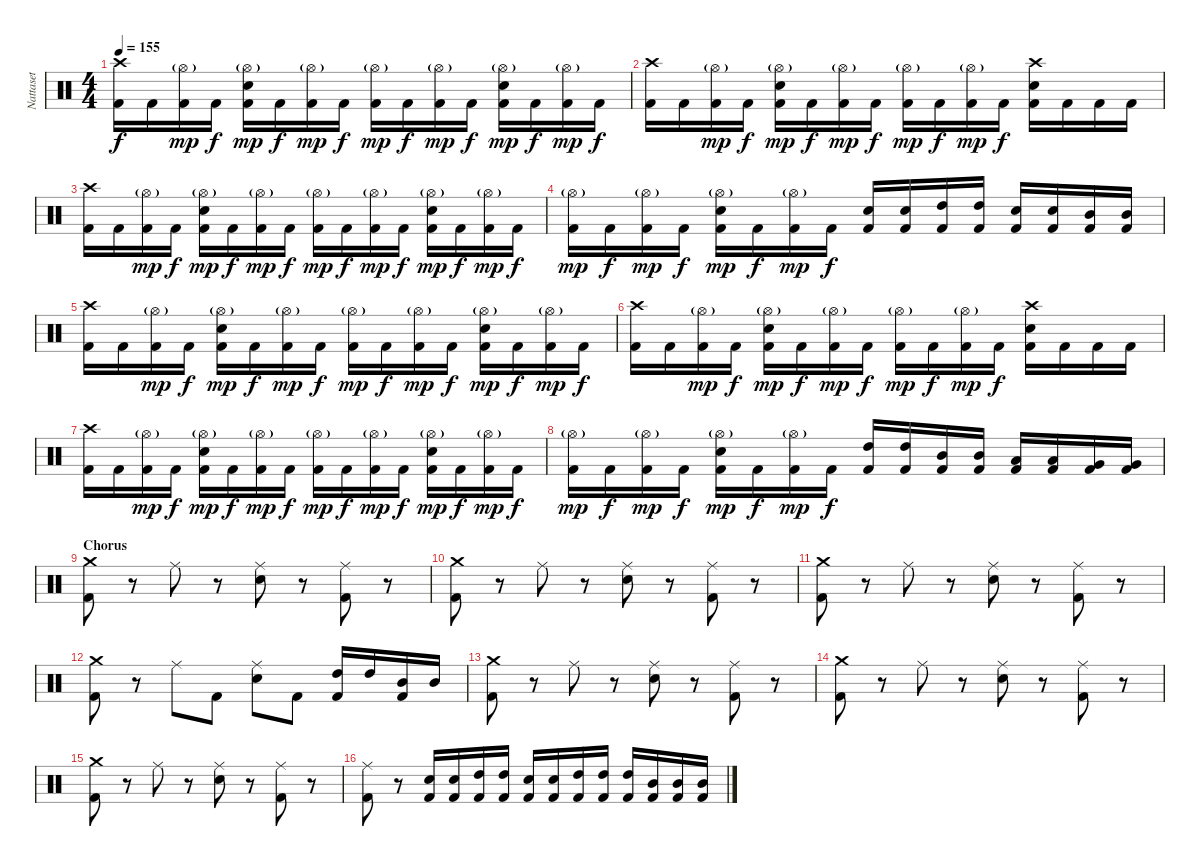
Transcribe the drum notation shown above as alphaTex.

\track ("Nattaset" "Nattaset") {instrument percussion}
\staff {score}
\articulation defaults
\ts (4 4)
\tempo 155
\clef neutral
\ks c
("Crash high (hit)" "Kick (hit) 2").16{dy f} "Kick (hit) 2".16 ("Hi-Hat (open)"{g} "Kick (hit) 2").16{dy mp} "Kick (hit) 2".16{dy f} ("Hi-Hat (open)"{g} "Electric Snare (hit)" "Kick (hit) 2").16{dy mp} "Kick (hit) 2".16{dy f} ("Hi-Hat (open)"{g} "Kick (hit) 2").16{dy mp} "Kick (hit) 2".16{dy f} ("Hi-Hat (open)"{g} "Kick (hit) 2").16{dy mp} "Kick (hit) 2".16{dy f} ("Hi-Hat (open)"{g} "Kick (hit) 2").16{dy mp} "Kick (hit) 2".16{dy f} ("Hi-Hat (open)"{g} "Electric Snare (hit)" "Kick (hit) 2").16{dy mp} "Kick (hit) 2".16{dy f} ("Hi-Hat (open)"{g} "Kick (hit) 2").16{dy mp} "Kick (hit) 2".16{dy f} |
("Crash high (hit)" "Kick (hit) 2").16 "Kick (hit) 2".16 ("Hi-Hat (open)"{g} "Kick (hit) 2").16{dy mp} "Kick (hit) 2".16{dy f} ("Hi-Hat (open)"{g} "Electric Snare (hit)" "Kick (hit) 2").16{dy mp} "Kick (hit) 2".16{dy f} ("Hi-Hat (open)"{g} "Kick (hit) 2").16{dy mp} "Kick (hit) 2".16{dy f} ("Hi-Hat (open)"{g} "Kick (hit) 2").16{dy mp} "Kick (hit) 2".16{dy f} ("Hi-Hat (open)"{g} "Kick (hit) 2").16{dy mp} "Kick (hit) 2".16{dy f} ("Crash high (hit)" "Electric Snare (hit)" "Kick (hit) 2").16 "Kick (hit) 2".16 "Kick (hit) 2".16 "Kick (hit) 2".16 |
("Crash high (hit)" "Kick (hit) 2").16 "Kick (hit) 2".16 ("Hi-Hat (open)"{g} "Kick (hit) 2").16{dy mp} "Kick (hit) 2".16{dy f} ("Hi-Hat (open)"{g} "Electric Snare (hit)" "Kick (hit) 2").16{dy mp} "Kick (hit) 2".16{dy f} ("Hi-Hat (open)"{g} "Kick (hit) 2").16{dy mp} "Kick (hit) 2".16{dy f} ("Hi-Hat (open)"{g} "Kick (hit) 2").16{dy mp} "Kick (hit) 2".16{dy f} ("Hi-Hat (open)"{g} "Kick (hit) 2").16{dy mp} "Kick (hit) 2".16{dy f} ("Hi-Hat (open)"{g} "Electric Snare (hit)" "Kick (hit) 2").16{dy mp} "Kick (hit) 2".16{dy f} ("Hi-Hat (open)"{g} "Kick (hit) 2").16{dy mp} "Kick (hit) 2".16{dy f} |
("Hi-Hat (open)"{g} "Kick (hit) 2").16{dy mp} "Kick (hit) 2".16{dy f} ("Hi-Hat (open)"{g} "Kick (hit) 2").16{dy mp} "Kick (hit) 2".16{dy f} ("Hi-Hat (open)"{g} "Electric Snare (hit)" "Kick (hit) 2").16{dy mp} "Kick (hit) 2".16{dy f} ("Hi-Hat (open)"{g} "Kick (hit) 2").16{dy mp} "Kick (hit) 2".16{dy f} ("Electric Snare (hit)" "Kick (hit) 2").16 ("Electric Snare (hit)" "Kick (hit) 2").16 ("High Tom (hit)" "Kick (hit) 2").16 ("High Tom (hit)" "Kick (hit) 2").16 ("Electric Snare (hit)" "Kick (hit) 2").16 ("Electric Snare (hit)" "Kick (hit) 2").16 ("Mid Tom (hit)" "Kick (hit) 2").16 ("Mid Tom (hit)" "Kick (hit) 2").16 |
("Crash high (hit)" "Kick (hit) 2").16 "Kick (hit) 2".16 ("Hi-Hat (open)"{g} "Kick (hit) 2").16{dy mp} "Kick (hit) 2".16{dy f} ("Hi-Hat (open)"{g} "Electric Snare (hit)" "Kick (hit) 2").16{dy mp} "Kick (hit) 2".16{dy f} ("Hi-Hat (open)"{g} "Kick (hit) 2").16{dy mp} "Kick (hit) 2".16{dy f} ("Hi-Hat (open)"{g} "Kick (hit) 2").16{dy mp} "Kick (hit) 2".16{dy f} ("Hi-Hat (open)"{g} "Kick (hit) 2").16{dy mp} "Kick (hit) 2".16{dy f} ("Hi-Hat (open)"{g} "Electric Snare (hit)" "Kick (hit) 2").16{dy mp} "Kick (hit) 2".16{dy f} ("Hi-Hat (open)"{g} "Kick (hit) 2").16{dy mp} "Kick (hit) 2".16{dy f} |
("Crash high (hit)" "Kick (hit) 2").16 "Kick (hit) 2".16 ("Hi-Hat (open)"{g} "Kick (hit) 2").16{dy mp} "Kick (hit) 2".16{dy f} ("Hi-Hat (open)"{g} "Electric Snare (hit)" "Kick (hit) 2").16{dy mp} "Kick (hit) 2".16{dy f} ("Hi-Hat (open)"{g} "Kick (hit) 2").16{dy mp} "Kick (hit) 2".16{dy f} ("Hi-Hat (open)"{g} "Kick (hit) 2").16{dy mp} "Kick (hit) 2".16{dy f} ("Hi-Hat (open)"{g} "Kick (hit) 2").16{dy mp} "Kick (hit) 2".16{dy f} ("Crash high (hit)" "Electric Snare (hit)" "Kick (hit) 2").16 "Kick (hit) 2".16 "Kick (hit) 2".16 "Kick (hit) 2".16 |
("Crash high (hit)" "Kick (hit) 2").16 "Kick (hit) 2".16 ("Hi-Hat (open)"{g} "Kick (hit) 2").16{dy mp} "Kick (hit) 2".16{dy f} ("Hi-Hat (open)"{g} "Electric Snare (hit)" "Kick (hit) 2").16{dy mp} "Kick (hit) 2".16{dy f} ("Hi-Hat (open)"{g} "Kick (hit) 2").16{dy mp} "Kick (hit) 2".16{dy f} ("Hi-Hat (open)"{g} "Kick (hit) 2").16{dy mp} "Kick (hit) 2".16{dy f} ("Hi-Hat (open)"{g} "Kick (hit) 2").16{dy mp} "Kick (hit) 2".16{dy f} ("Hi-Hat (open)"{g} "Electric Snare (hit)" "Kick (hit) 2").16{dy mp} "Kick (hit) 2".16{dy f} ("Hi-Hat (open)"{g} "Kick (hit) 2").16{dy mp} "Kick (hit) 2".16{dy f} |
("Hi-Hat (open)"{g} "Kick (hit) 2").16{dy mp} "Kick (hit) 2".16{dy f} ("Hi-Hat (open)"{g} "Kick (hit) 2").16{dy mp} "Kick (hit) 2".16{dy f} ("Hi-Hat (open)"{g} "Electric Snare (hit)" "Kick (hit) 2").16{dy mp} "Kick (hit) 2".16{dy f} ("Hi-Hat (open)"{g} "Kick (hit) 2").16{dy mp} "Kick (hit) 2".16{dy f} ("High Tom (hit)" "Kick (hit) 2").16 ("High Tom (hit)" "Kick (hit) 2").16 ("Mid Tom (hit)" "Kick (hit) 2").16 ("Mid Tom (hit)" "Kick (hit) 2").16 ("Low Tom (hit)" "Kick (hit) 2").16 ("Low Tom (hit)" "Kick (hit) 2").16 ("Very Low Tom (hit)" "Kick (hit) 2").16 ("Very Low Tom (hit)" "Kick (hit) 2").16 |
\section ("" "Chorus")
("Crash medium (hit)" "Kick (hit) 2").8 r.8 "Ride (middle)".8 r.8 ("Ride (middle)" "Electric Snare (hit)").8 r.8 ("Ride (middle)" "Kick (hit) 2").8 r.8 |
("Crash medium (hit)" "Kick (hit) 2").8 r.8 "Ride (middle)".8 r.8 ("Ride (middle)" "Electric Snare (hit)").8 r.8 ("Ride (middle)" "Kick (hit) 2").8 r.8 |
("Crash medium (hit)" "Kick (hit) 2").8 r.8 "Ride (middle)".8 r.8 ("Ride (middle)" "Electric Snare (hit)").8 r.8 ("Ride (middle)" "Kick (hit) 2").8 r.8 |
("Crash medium (hit)" "Kick (hit) 2").8 r.8 "Ride (middle)".8 "Kick (hit) 2".8 ("Ride (middle)" "Electric Snare (hit)").8 "Kick (hit) 2".8 ("High Tom (hit)" "Kick (hit) 2").16 "High Tom (hit)".16 ("Mid Tom (hit)" "Kick (hit) 2").16 "Mid Tom (hit)".16 |
("Crash medium (hit)" "Kick (hit) 2").8 r.8 "Ride (middle)".8 r.8 ("Ride (middle)" "Electric Snare (hit)").8 r.8 ("Ride (middle)" "Kick (hit) 2").8 r.8 |
("Crash medium (hit)" "Kick (hit) 2").8 r.8 "Ride (middle)".8 r.8 ("Ride (middle)" "Electric Snare (hit)").8 r.8 ("Ride (middle)" "Kick (hit) 2").8 r.8 |
("Crash medium (hit)" "Kick (hit) 2").8 r.8 "Ride (middle)".8 r.8 ("Ride (middle)" "Electric Snare (hit)").8 r.8 ("Ride (middle)" "Kick (hit) 2").8 r.8 |
("Ride (middle)" "Kick (hit) 2").8 r.8 ("Electric Snare (hit)" "Kick (hit) 2").16 ("Electric Snare (hit)" "Kick (hit) 2").16 ("High Tom (hit)" "Kick (hit) 2").16 ("High Tom (hit)" "Kick (hit) 2").16 ("Electric Snare (hit)" "Kick (hit) 2").16 ("Electric Snare (hit)" "Kick (hit) 2").16 ("High Tom (hit)" "Kick (hit) 2").16 ("High Tom (hit)" "Kick (hit) 2").16 ("High Tom (hit)" "Kick (hit) 2").16 ("Mid Tom (hit)" "Kick (hit) 2").16 ("Mid Tom (hit)" "Kick (hit) 2").16 ("Mid Tom (hit)" "Kick (hit) 2").16
